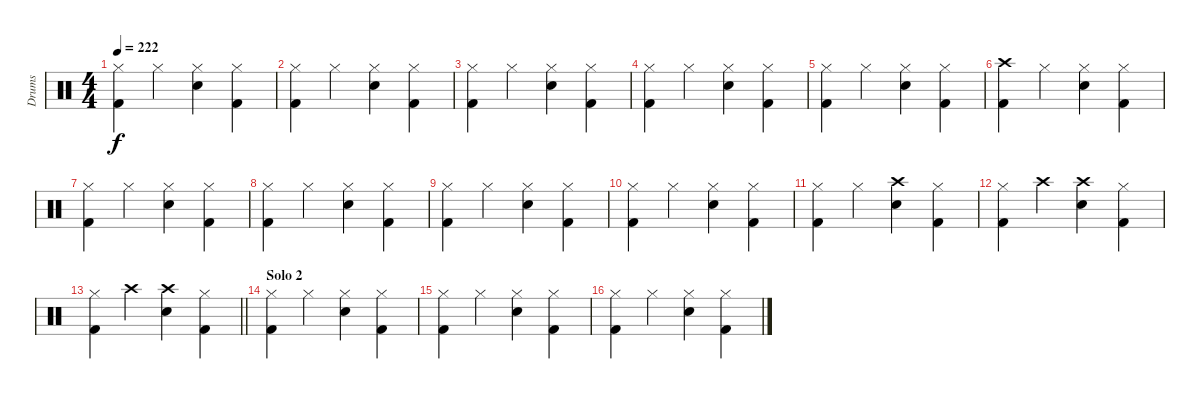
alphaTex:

\track ("Drums" "Drums") {instrument percussion}
\staff {score}
\articulation defaults
\ts (4 4)
\tempo 222
\clef neutral
\ks c
("Hi-Hat (closed)" "Kick (hit) 2").4{dy f} "Hi-Hat (closed)".4 ("Hi-Hat (closed)" "Electric Snare (hit)").4 ("Hi-Hat (closed)" "Kick (hit) 2").4 |
("Hi-Hat (closed)" "Kick (hit) 2").4 "Hi-Hat (closed)".4 ("Hi-Hat (closed)" "Electric Snare (hit)").4 ("Hi-Hat (closed)" "Kick (hit) 2").4 |
("Hi-Hat (closed)" "Kick (hit) 2").4 "Hi-Hat (closed)".4 ("Hi-Hat (closed)" "Electric Snare (hit)").4 ("Hi-Hat (closed)" "Kick (hit) 2").4 |
("Hi-Hat (closed)" "Kick (hit) 2").4 "Hi-Hat (closed)".4 ("Hi-Hat (closed)" "Electric Snare (hit)").4 ("Hi-Hat (closed)" "Kick (hit) 2").4 |
("Hi-Hat (closed)" "Kick (hit) 2").4 "Hi-Hat (closed)".4 ("Hi-Hat (closed)" "Electric Snare (hit)").4 ("Hi-Hat (closed)" "Kick (hit) 2").4 |
("Crash high (hit)" "Kick (hit) 2").4 "Hi-Hat (closed)".4 ("Hi-Hat (closed)" "Electric Snare (hit)").4 ("Hi-Hat (closed)" "Kick (hit) 2").4 |
("Hi-Hat (closed)" "Kick (hit) 2").4 "Hi-Hat (closed)".4 ("Hi-Hat (closed)" "Electric Snare (hit)").4 ("Hi-Hat (closed)" "Kick (hit) 2").4 |
("Hi-Hat (closed)" "Kick (hit) 2").4 "Hi-Hat (closed)".4 ("Hi-Hat (closed)" "Electric Snare (hit)").4 ("Hi-Hat (closed)" "Kick (hit) 2").4 |
("Hi-Hat (closed)" "Kick (hit) 2").4 "Hi-Hat (closed)".4 ("Hi-Hat (closed)" "Electric Snare (hit)").4 ("Hi-Hat (closed)" "Kick (hit) 2").4 |
("Hi-Hat (closed)" "Kick (hit) 2").4 "Hi-Hat (closed)".4 ("Hi-Hat (closed)" "Electric Snare (hit)").4 ("Hi-Hat (closed)" "Kick (hit) 2").4 |
("Hi-Hat (closed)" "Kick (hit) 2").4 "Hi-Hat (closed)".4 ("Crash high (hit)" "Electric Snare (hit)").4 ("Hi-Hat (closed)" "Kick (hit) 2").4 |
("Hi-Hat (closed)" "Kick (hit) 2").4 "Crash high (hit)".4 ("Crash high (hit)" "Electric Snare (hit)").4 ("Hi-Hat (closed)" "Kick (hit) 2").4 |
\barLineRight lightlight
("Hi-Hat (closed)" "Kick (hit) 2").4 "Crash high (hit)".4 ("Crash high (hit)" "Electric Snare (hit)").4 ("Hi-Hat (closed)" "Kick (hit) 2").4 |
\section ("" "Solo 2")
("Hi-Hat (closed)" "Kick (hit) 2").4{volume 16} "Hi-Hat (closed)".4 ("Hi-Hat (closed)" "Electric Snare (hit)").4 ("Hi-Hat (closed)" "Kick (hit) 2").4 |
("Hi-Hat (closed)" "Kick (hit) 2").4 "Hi-Hat (closed)".4 ("Hi-Hat (closed)" "Electric Snare (hit)").4 ("Hi-Hat (closed)" "Kick (hit) 2").4 |
("Hi-Hat (closed)" "Kick (hit) 2").4 "Hi-Hat (closed)".4 ("Hi-Hat (closed)" "Electric Snare (hit)").4 ("Hi-Hat (closed)" "Kick (hit) 2").4
